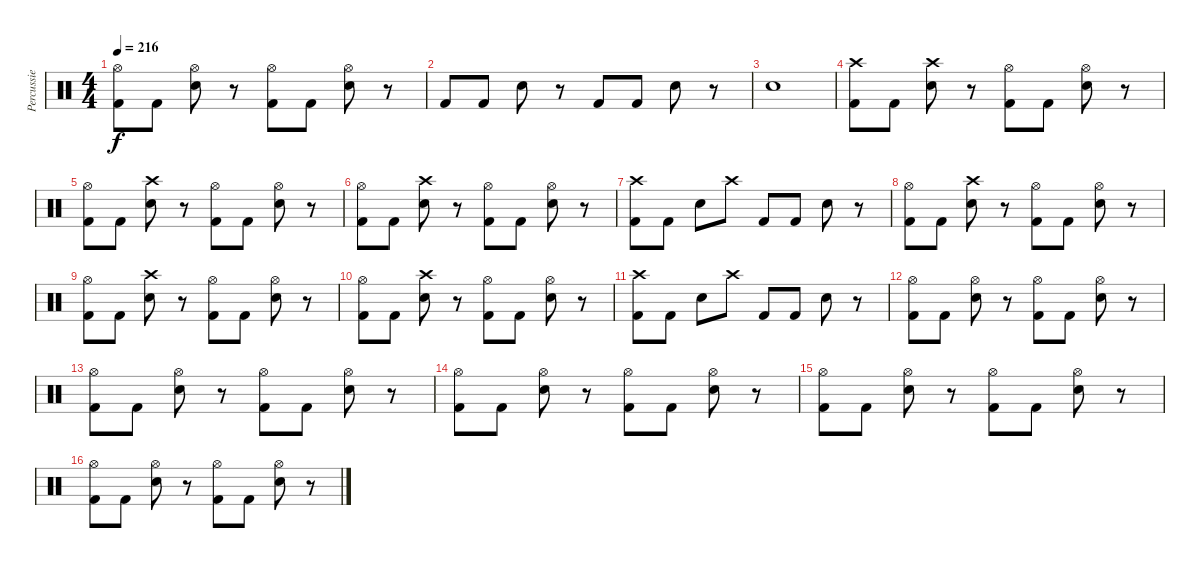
\track ("Percussie" "Percussie") {instrument percussion}
\staff {score}
\articulation defaults
\ts (4 4)
\tempo 216
\clef neutral
\ks c
("Hi-Hat (open)" "Kick (hit) 2").8{dy f} "Kick (hit) 2".8 ("Hi-Hat (open)" "Snare (hit) 2").8 r.8 ("Hi-Hat (open)" "Kick (hit) 2").8 "Kick (hit) 2".8 ("Hi-Hat (open)" "Snare (hit) 2").8 r.8 |
"Kick (hit) 2".8 "Kick (hit) 2".8 "Snare (hit) 2".8 r.8 "Kick (hit) 2".8 "Kick (hit) 2".8 "Snare (hit) 2".8 r.8 |
"Snare (hit) 2".1 |
("Crash high (hit)" "Kick (hit) 2").8 "Kick (hit) 2".8 ("Crash high (hit)" "Snare (hit) 2").8 r.8 ("Hi-Hat (open)" "Kick (hit) 2").8 "Kick (hit) 2".8 ("Hi-Hat (open)" "Snare (hit) 2").8 r.8 |
("Hi-Hat (open)" "Kick (hit) 2").8 "Kick (hit) 2".8 ("Crash high (hit)" "Snare (hit) 2").8 r.8 ("Hi-Hat (open)" "Kick (hit) 2").8 "Kick (hit) 2".8 ("Hi-Hat (open)" "Snare (hit) 2").8 r.8 |
("Hi-Hat (open)" "Kick (hit) 2").8 "Kick (hit) 2".8 ("Crash high (hit)" "Snare (hit) 2").8 r.8 ("Hi-Hat (open)" "Kick (hit) 2").8 "Kick (hit) 2".8 ("Hi-Hat (open)" "Snare (hit) 2").8 r.8 |
("Crash high (hit)" "Kick (hit) 2").8 "Kick (hit) 2".8 "Snare (hit) 2".8 "Crash high (hit)".8 "Kick (hit) 2".8 "Kick (hit) 2".8 "Snare (hit) 2".8 r.8 |
("Hi-Hat (open)" "Kick (hit) 2").8 "Kick (hit) 2".8 ("Crash high (hit)" "Snare (hit) 2").8 r.8 ("Hi-Hat (open)" "Kick (hit) 2").8 "Kick (hit) 2".8 ("Hi-Hat (open)" "Snare (hit) 2").8 r.8 |
("Hi-Hat (open)" "Kick (hit) 2").8 "Kick (hit) 2".8 ("Crash high (hit)" "Snare (hit) 2").8 r.8 ("Hi-Hat (open)" "Kick (hit) 2").8 "Kick (hit) 2".8 ("Hi-Hat (open)" "Snare (hit) 2").8 r.8 |
("Hi-Hat (open)" "Kick (hit) 2").8 "Kick (hit) 2".8 ("Crash high (hit)" "Snare (hit) 2").8 r.8 ("Hi-Hat (open)" "Kick (hit) 2").8 "Kick (hit) 2".8 ("Hi-Hat (open)" "Snare (hit) 2").8 r.8 |
("Crash high (hit)" "Kick (hit) 2").8 "Kick (hit) 2".8 "Snare (hit) 2".8 "Crash high (hit)".8 "Kick (hit) 2".8 "Kick (hit) 2".8 "Snare (hit) 2".8 r.8 |
("Hi-Hat (open)" "Kick (hit) 2").8 "Kick (hit) 2".8 ("Hi-Hat (open)" "Snare (hit) 2").8 r.8 ("Hi-Hat (open)" "Kick (hit) 2").8 "Kick (hit) 2".8 ("Hi-Hat (open)" "Snare (hit) 2").8 r.8 |
("Hi-Hat (open)" "Kick (hit) 2").8 "Kick (hit) 2".8 ("Hi-Hat (open)" "Snare (hit) 2").8 r.8 ("Hi-Hat (open)" "Kick (hit) 2").8 "Kick (hit) 2".8 ("Hi-Hat (open)" "Snare (hit) 2").8 r.8 |
("Hi-Hat (open)" "Kick (hit) 2").8 "Kick (hit) 2".8 ("Hi-Hat (open)" "Snare (hit) 2").8 r.8 ("Hi-Hat (open)" "Kick (hit) 2").8 "Kick (hit) 2".8 ("Hi-Hat (open)" "Snare (hit) 2").8 r.8 |
("Hi-Hat (open)" "Kick (hit) 2").8 "Kick (hit) 2".8 ("Hi-Hat (open)" "Snare (hit) 2").8 r.8 ("Hi-Hat (open)" "Kick (hit) 2").8 "Kick (hit) 2".8 ("Hi-Hat (open)" "Snare (hit) 2").8 r.8 |
("Hi-Hat (open)" "Kick (hit) 2").8 "Kick (hit) 2".8 ("Hi-Hat (open)" "Snare (hit) 2").8 r.8 ("Hi-Hat (open)" "Kick (hit) 2").8 "Kick (hit) 2".8 ("Hi-Hat (open)" "Snare (hit) 2").8 r.8
